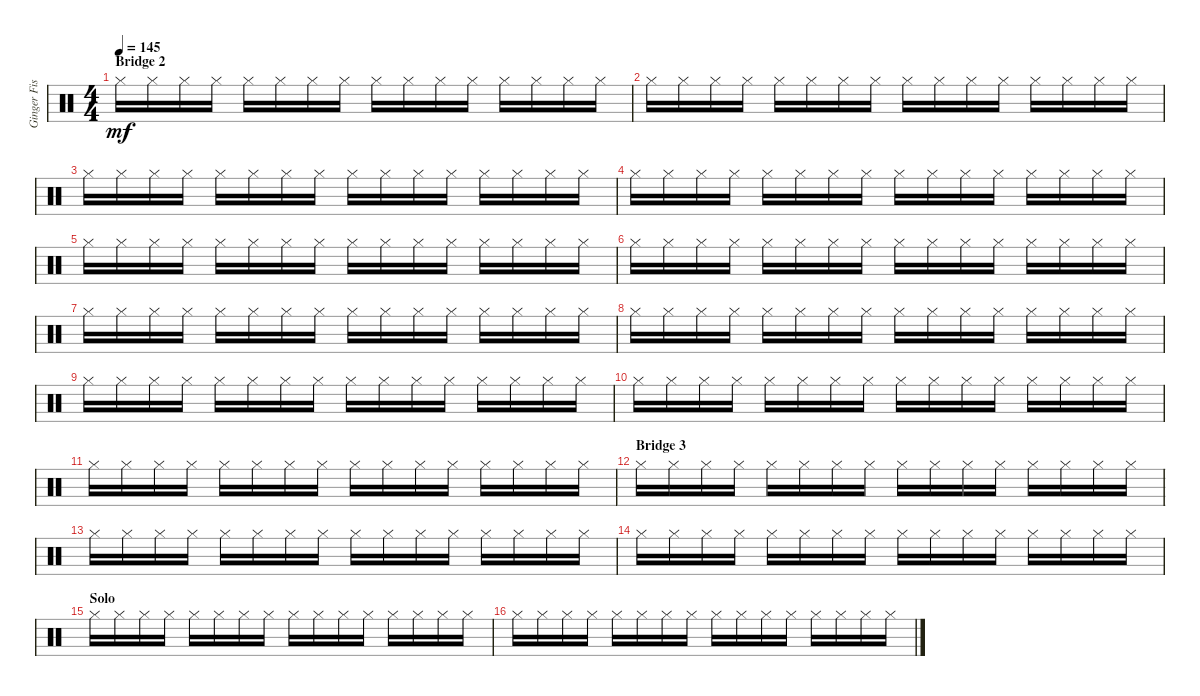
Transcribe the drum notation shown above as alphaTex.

\track ("Ginger Fish [Aditional Drums]" "Ginger Fis") {instrument percussion}
\staff {score}
\articulation defaults
\ts (4 4)
\section ("" "Bridge 2")
\tempo 145
\clef neutral
\ks c "Hi-Hat (closed)".16{dy mf} "Hi-Hat (closed)".16 "Hi-Hat (closed)".16 "Hi-Hat (closed)".16 "Hi-Hat (closed)".16 "Hi-Hat (closed)".16 "Hi-Hat (closed)".16 "Hi-Hat (closed)".16 "Hi-Hat (closed)".16 "Hi-Hat (closed)".16 "Hi-Hat (closed)".16 "Hi-Hat (closed)".16 "Hi-Hat (closed)".16 "Hi-Hat (closed)".16 "Hi-Hat (closed)".16 "Hi-Hat (closed)".16
|
"Hi-Hat (closed)".16 "Hi-Hat (closed)".16 "Hi-Hat (closed)".16 "Hi-Hat (closed)".16 "Hi-Hat (closed)".16 "Hi-Hat (closed)".16 "Hi-Hat (closed)".16 "Hi-Hat (closed)".16 "Hi-Hat (closed)".16 "Hi-Hat (closed)".16 "Hi-Hat (closed)".16 "Hi-Hat (closed)".16 "Hi-Hat (closed)".16 "Hi-Hat (closed)".16 "Hi-Hat (closed)".16 "Hi-Hat (closed)".16 |
"Hi-Hat (closed)".16 "Hi-Hat (closed)".16 "Hi-Hat (closed)".16 "Hi-Hat (closed)".16 "Hi-Hat (closed)".16 "Hi-Hat (closed)".16 "Hi-Hat (closed)".16 "Hi-Hat (closed)".16 "Hi-Hat (closed)".16 "Hi-Hat (closed)".16 "Hi-Hat (closed)".16 "Hi-Hat (closed)".16 "Hi-Hat (closed)".16 "Hi-Hat (closed)".16 "Hi-Hat (closed)".16 "Hi-Hat (closed)".16 |
"Hi-Hat (closed)".16 "Hi-Hat (closed)".16 "Hi-Hat (closed)".16 "Hi-Hat (closed)".16 "Hi-Hat (closed)".16 "Hi-Hat (closed)".16 "Hi-Hat (closed)".16 "Hi-Hat (closed)".16 "Hi-Hat (closed)".16 "Hi-Hat (closed)".16 "Hi-Hat (closed)".16 "Hi-Hat (closed)".16 "Hi-Hat (closed)".16 "Hi-Hat (closed)".16 "Hi-Hat (closed)".16 "Hi-Hat (closed)".16 |
"Hi-Hat (closed)".16 "Hi-Hat (closed)".16 "Hi-Hat (closed)".16 "Hi-Hat (closed)".16 "Hi-Hat (closed)".16 "Hi-Hat (closed)".16 "Hi-Hat (closed)".16 "Hi-Hat (closed)".16 "Hi-Hat (closed)".16 "Hi-Hat (closed)".16 "Hi-Hat (closed)".16 "Hi-Hat (closed)".16 "Hi-Hat (closed)".16 "Hi-Hat (closed)".16 "Hi-Hat (closed)".16 "Hi-Hat (closed)".16 |
"Hi-Hat (closed)".16 "Hi-Hat (closed)".16 "Hi-Hat (closed)".16 "Hi-Hat (closed)".16 "Hi-Hat (closed)".16 "Hi-Hat (closed)".16 "Hi-Hat (closed)".16 "Hi-Hat (closed)".16 "Hi-Hat (closed)".16 "Hi-Hat (closed)".16 "Hi-Hat (closed)".16 "Hi-Hat (closed)".16 "Hi-Hat (closed)".16 "Hi-Hat (closed)".16 "Hi-Hat (closed)".16 "Hi-Hat (closed)".16 |
"Hi-Hat (closed)".16 "Hi-Hat (closed)".16 "Hi-Hat (closed)".16 "Hi-Hat (closed)".16 "Hi-Hat (closed)".16 "Hi-Hat (closed)".16 "Hi-Hat (closed)".16 "Hi-Hat (closed)".16 "Hi-Hat (closed)".16 "Hi-Hat (closed)".16 "Hi-Hat (closed)".16 "Hi-Hat (closed)".16 "Hi-Hat (closed)".16 "Hi-Hat (closed)".16 "Hi-Hat (closed)".16 "Hi-Hat (closed)".16 |
"Hi-Hat (closed)".16 "Hi-Hat (closed)".16 "Hi-Hat (closed)".16 "Hi-Hat (closed)".16 "Hi-Hat (closed)".16 "Hi-Hat (closed)".16 "Hi-Hat (closed)".16 "Hi-Hat (closed)".16 "Hi-Hat (closed)".16 "Hi-Hat (closed)".16 "Hi-Hat (closed)".16 "Hi-Hat (closed)".16 "Hi-Hat (closed)".16 "Hi-Hat (closed)".16 "Hi-Hat (closed)".16 "Hi-Hat (closed)".16 |
"Hi-Hat (closed)".16 "Hi-Hat (closed)".16 "Hi-Hat (closed)".16 "Hi-Hat (closed)".16 "Hi-Hat (closed)".16 "Hi-Hat (closed)".16 "Hi-Hat (closed)".16 "Hi-Hat (closed)".16 "Hi-Hat (closed)".16 "Hi-Hat (closed)".16 "Hi-Hat (closed)".16 "Hi-Hat (closed)".16 "Hi-Hat (closed)".16 "Hi-Hat (closed)".16 "Hi-Hat (closed)".16 "Hi-Hat (closed)".16 |
"Hi-Hat (closed)".16 "Hi-Hat (closed)".16 "Hi-Hat (closed)".16 "Hi-Hat (closed)".16 "Hi-Hat (closed)".16 "Hi-Hat (closed)".16 "Hi-Hat (closed)".16 "Hi-Hat (closed)".16 "Hi-Hat (closed)".16 "Hi-Hat (closed)".16 "Hi-Hat (closed)".16 "Hi-Hat (closed)".16 "Hi-Hat (closed)".16 "Hi-Hat (closed)".16 "Hi-Hat (closed)".16 "Hi-Hat (closed)".16 |
"Hi-Hat (closed)".16 "Hi-Hat (closed)".16 "Hi-Hat (closed)".16 "Hi-Hat (closed)".16 "Hi-Hat (closed)".16 "Hi-Hat (closed)".16 "Hi-Hat (closed)".16 "Hi-Hat (closed)".16 "Hi-Hat (closed)".16 "Hi-Hat (closed)".16 "Hi-Hat (closed)".16 "Hi-Hat (closed)".16 "Hi-Hat (closed)".16 "Hi-Hat (closed)".16 "Hi-Hat (closed)".16 "Hi-Hat (closed)".16 |
\section ("" "Bridge 3")
"Hi-Hat (closed)".16 "Hi-Hat (closed)".16 "Hi-Hat (closed)".16 "Hi-Hat (closed)".16 "Hi-Hat (closed)".16 "Hi-Hat (closed)".16 "Hi-Hat (closed)".16 "Hi-Hat (closed)".16 "Hi-Hat (closed)".16 "Hi-Hat (closed)".16 "Hi-Hat (closed)".16 "Hi-Hat (closed)".16 "Hi-Hat (closed)".16 "Hi-Hat (closed)".16 "Hi-Hat (closed)".16 "Hi-Hat (closed)".16 |
"Hi-Hat (closed)".16 "Hi-Hat (closed)".16 "Hi-Hat (closed)".16 "Hi-Hat (closed)".16 "Hi-Hat (closed)".16 "Hi-Hat (closed)".16 "Hi-Hat (closed)".16 "Hi-Hat (closed)".16 "Hi-Hat (closed)".16 "Hi-Hat (closed)".16 "Hi-Hat (closed)".16 "Hi-Hat (closed)".16 "Hi-Hat (closed)".16 "Hi-Hat (closed)".16 "Hi-Hat (closed)".16 "Hi-Hat (closed)".16 |
"Hi-Hat (closed)".16 "Hi-Hat (closed)".16 "Hi-Hat (closed)".16 "Hi-Hat (closed)".16 "Hi-Hat (closed)".16 "Hi-Hat (closed)".16 "Hi-Hat (closed)".16 "Hi-Hat (closed)".16 "Hi-Hat (closed)".16 "Hi-Hat (closed)".16 "Hi-Hat (closed)".16 "Hi-Hat (closed)".16 "Hi-Hat (closed)".16 "Hi-Hat (closed)".16 "Hi-Hat (closed)".16 "Hi-Hat (closed)".16 |
\section ("" "Solo")
"Hi-Hat (closed)".16 "Hi-Hat (closed)".16 "Hi-Hat (closed)".16 "Hi-Hat (closed)".16 "Hi-Hat (closed)".16 "Hi-Hat (closed)".16 "Hi-Hat (closed)".16 "Hi-Hat (closed)".16 "Hi-Hat (closed)".16 "Hi-Hat (closed)".16 "Hi-Hat (closed)".16 "Hi-Hat (closed)".16 "Hi-Hat (closed)".16 "Hi-Hat (closed)".16 "Hi-Hat (closed)".16 "Hi-Hat (closed)".16 |
"Hi-Hat (closed)".16 "Hi-Hat (closed)".16 "Hi-Hat (closed)".16 "Hi-Hat (closed)".16 "Hi-Hat (closed)".16 "Hi-Hat (closed)".16 "Hi-Hat (closed)".16 "Hi-Hat (closed)".16 "Hi-Hat (closed)".16 "Hi-Hat (closed)".16 "Hi-Hat (closed)".16 "Hi-Hat (closed)".16 "Hi-Hat (closed)".16 "Hi-Hat (closed)".16 "Hi-Hat (closed)".16 "Hi-Hat (closed)".16
